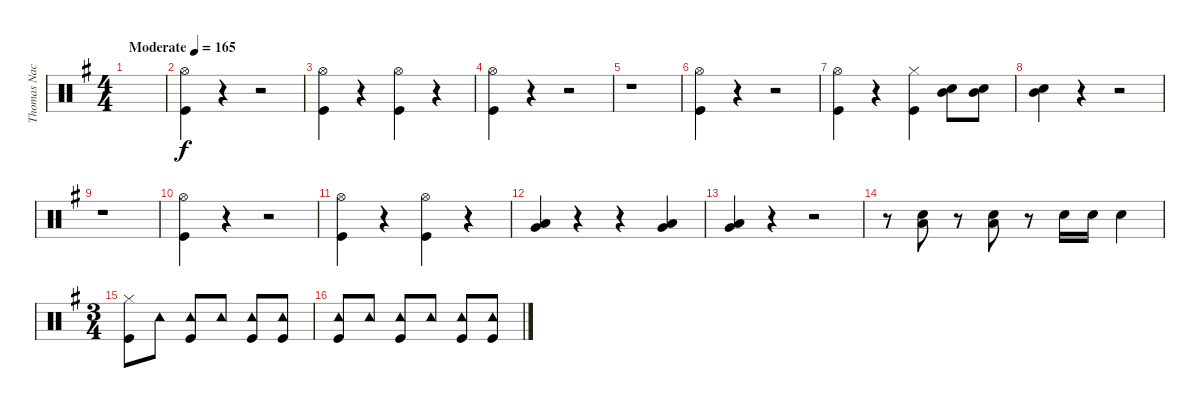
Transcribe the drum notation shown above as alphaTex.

\track ("Thomas Nack" "Thomas Nac") {instrument percussion}
\staff {score}
\articulation defaults
\ts (4 4)
\tempo (165 "Moderate")
\clef neutral
\ks g
|
("Hi-Hat (open)" "Kick (hit)").4 r.4 r.2 |
("Hi-Hat (open)" "Kick (hit)").4 r.4 ("Hi-Hat (open)" "Kick (hit)").4 r.4 |
("Hi-Hat (open)" "Kick (hit)").4 r.4 r.2 |
r.1 |
("Hi-Hat (open)" "Kick (hit)").4 r.4 r.2 |
("Hi-Hat (open)" "Kick (hit)").4 r.4 ("Hi-Hat (closed)" "Kick (hit)").4 ("Mid Tom (hit)" "Snare (hit) 2").8 ("Mid Tom (hit)" "Snare (hit) 2").8 |
("Mid Tom (hit)" "Snare (hit) 2").4 r.4 r.2 |
r.1 |
("Hi-Hat (open)" "Kick (hit)").4 r.4 r.2 |
("Hi-Hat (open)" "Kick (hit)").4 r.4 ("Hi-Hat (open)" "Kick (hit)").4 r.4 |
("Low Tom (hit)" "Very Low Tom (hit)").4 r.4 r.4 ("Low Tom (hit)" "Very Low Tom (hit)").4 |
("Low Tom (hit)" "Very Low Tom (hit)").4 r.4 r.2 |
r.8 ("Snare (hit) 2" "Low Tom (hit)").8 r.8 ("Snare (hit) 2" "Low Tom (hit)").8 r.8 "Snare (hit) 2".16 "Snare (hit) 2".16 "Snare (hit) 2".4 |
\ts (3 4)
("Hi-Hat (closed)" "Kick (hit)").8 "Tambourine (hit)".8 ("Tambourine (hit)" "Kick (hit)").8 "Tambourine (hit)".8 ("Tambourine (hit)" "Kick (hit)").8 ("Tambourine (hit)" "Kick (hit)").8 |
("Tambourine (hit)" "Kick (hit)").8 "Tambourine (hit)".8 ("Tambourine (hit)" "Kick (hit)").8 "Tambourine (hit)".8 ("Tambourine (hit)" "Kick (hit)").8 ("Tambourine (hit)" "Kick (hit)").8
